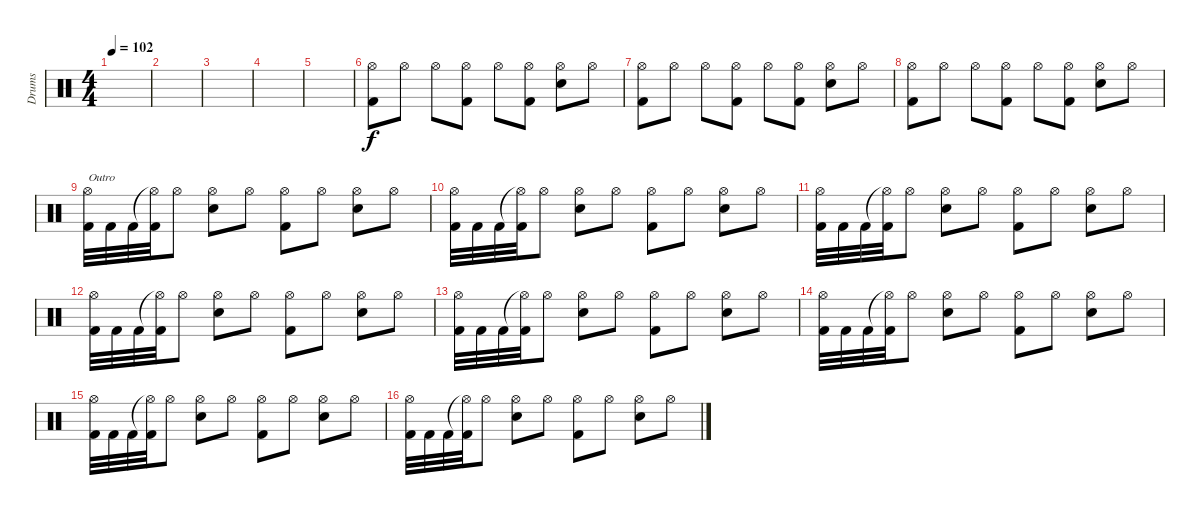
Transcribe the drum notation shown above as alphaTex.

\track ("Drums" "Drums") {instrument percussion}
\staff {score}
\articulation defaults
\ts (4 4)
\tempo 102
\clef neutral
\ks c
|
|
|
|
|
("Hi-Hat (open)" "Kick (hit) 2").8 "Hi-Hat (open)".8 "Hi-Hat (open)".8 ("Hi-Hat (open)" "Kick (hit) 2").8 "Hi-Hat (open)".8 ("Hi-Hat (open)" "Kick (hit) 2").8 ("Hi-Hat (open)" "Snare (hit) 2").8 "Hi-Hat (open)".8 |
("Hi-Hat (open)" "Kick (hit) 2").8 "Hi-Hat (open)".8 "Hi-Hat (open)".8 ("Hi-Hat (open)" "Kick (hit) 2").8 "Hi-Hat (open)".8 ("Hi-Hat (open)" "Kick (hit) 2").8 ("Hi-Hat (open)" "Snare (hit) 2").8 "Hi-Hat (open)".8 |
("Hi-Hat (open)" "Kick (hit) 2").8 "Hi-Hat (open)".8 "Hi-Hat (open)".8 ("Hi-Hat (open)" "Kick (hit) 2").8 "Hi-Hat (open)".8 ("Hi-Hat (open)" "Kick (hit) 2").8 ("Hi-Hat (open)" "Snare (hit) 2").8 "Hi-Hat (open)".8 |
("Hi-Hat (open)" "Kick (hit) 2").32{txt "Outro"} "Kick (hit) 2".32 "Kick (hit) 2".32 ("Hi-Hat (open)"{t} "Kick (hit) 2").32 "Hi-Hat (open)".8 ("Hi-Hat (open)" "Snare (hit) 2").8 "Hi-Hat (open)".8 ("Hi-Hat (open)" "Kick (hit) 2").8 "Hi-Hat (open)".8 ("Hi-Hat (open)" "Snare (hit) 2").8 "Hi-Hat (open)".8 |
("Hi-Hat (open)" "Kick (hit) 2").32 "Kick (hit) 2".32 "Kick (hit) 2".32 ("Hi-Hat (open)"{t} "Kick (hit) 2").32 "Hi-Hat (open)".8 ("Hi-Hat (open)" "Snare (hit) 2").8 "Hi-Hat (open)".8 ("Hi-Hat (open)" "Kick (hit) 2").8 "Hi-Hat (open)".8 ("Hi-Hat (open)" "Snare (hit) 2").8 "Hi-Hat (open)".8 |
("Hi-Hat (open)" "Kick (hit) 2").32 "Kick (hit) 2".32 "Kick (hit) 2".32 ("Hi-Hat (open)"{t} "Kick (hit) 2").32 "Hi-Hat (open)".8 ("Hi-Hat (open)" "Snare (hit) 2").8 "Hi-Hat (open)".8 ("Hi-Hat (open)" "Kick (hit) 2").8 "Hi-Hat (open)".8 ("Hi-Hat (open)" "Snare (hit) 2").8 "Hi-Hat (open)".8 |
("Hi-Hat (open)" "Kick (hit) 2").32 "Kick (hit) 2".32 "Kick (hit) 2".32 ("Hi-Hat (open)"{t} "Kick (hit) 2").32 "Hi-Hat (open)".8 ("Hi-Hat (open)" "Snare (hit) 2").8 "Hi-Hat (open)".8 ("Hi-Hat (open)" "Kick (hit) 2").8 "Hi-Hat (open)".8 ("Hi-Hat (open)" "Snare (hit) 2").8 "Hi-Hat (open)".8 |
("Hi-Hat (open)" "Kick (hit) 2").32 "Kick (hit) 2".32 "Kick (hit) 2".32 ("Hi-Hat (open)"{t} "Kick (hit) 2").32 "Hi-Hat (open)".8 ("Hi-Hat (open)" "Snare (hit) 2").8 "Hi-Hat (open)".8 ("Hi-Hat (open)" "Kick (hit) 2").8 "Hi-Hat (open)".8 ("Hi-Hat (open)" "Snare (hit) 2").8 "Hi-Hat (open)".8 |
("Hi-Hat (open)" "Kick (hit) 2").32 "Kick (hit) 2".32 "Kick (hit) 2".32 ("Hi-Hat (open)"{t} "Kick (hit) 2").32 "Hi-Hat (open)".8 ("Hi-Hat (open)" "Snare (hit) 2").8 "Hi-Hat (open)".8 ("Hi-Hat (open)" "Kick (hit) 2").8 "Hi-Hat (open)".8 ("Hi-Hat (open)" "Snare (hit) 2").8 "Hi-Hat (open)".8 |
("Hi-Hat (open)" "Kick (hit) 2").32 "Kick (hit) 2".32 "Kick (hit) 2".32 ("Hi-Hat (open)"{t} "Kick (hit) 2").32 "Hi-Hat (open)".8 ("Hi-Hat (open)" "Snare (hit) 2").8 "Hi-Hat (open)".8 ("Hi-Hat (open)" "Kick (hit) 2").8 "Hi-Hat (open)".8 ("Hi-Hat (open)" "Snare (hit) 2").8 "Hi-Hat (open)".8 |
("Hi-Hat (open)" "Kick (hit) 2").32 "Kick (hit) 2".32 "Kick (hit) 2".32 ("Hi-Hat (open)"{t} "Kick (hit) 2").32 "Hi-Hat (open)".8 ("Hi-Hat (open)" "Snare (hit) 2").8 "Hi-Hat (open)".8 ("Hi-Hat (open)" "Kick (hit) 2").8 "Hi-Hat (open)".8 ("Hi-Hat (open)" "Snare (hit) 2").8 "Hi-Hat (open)".8
